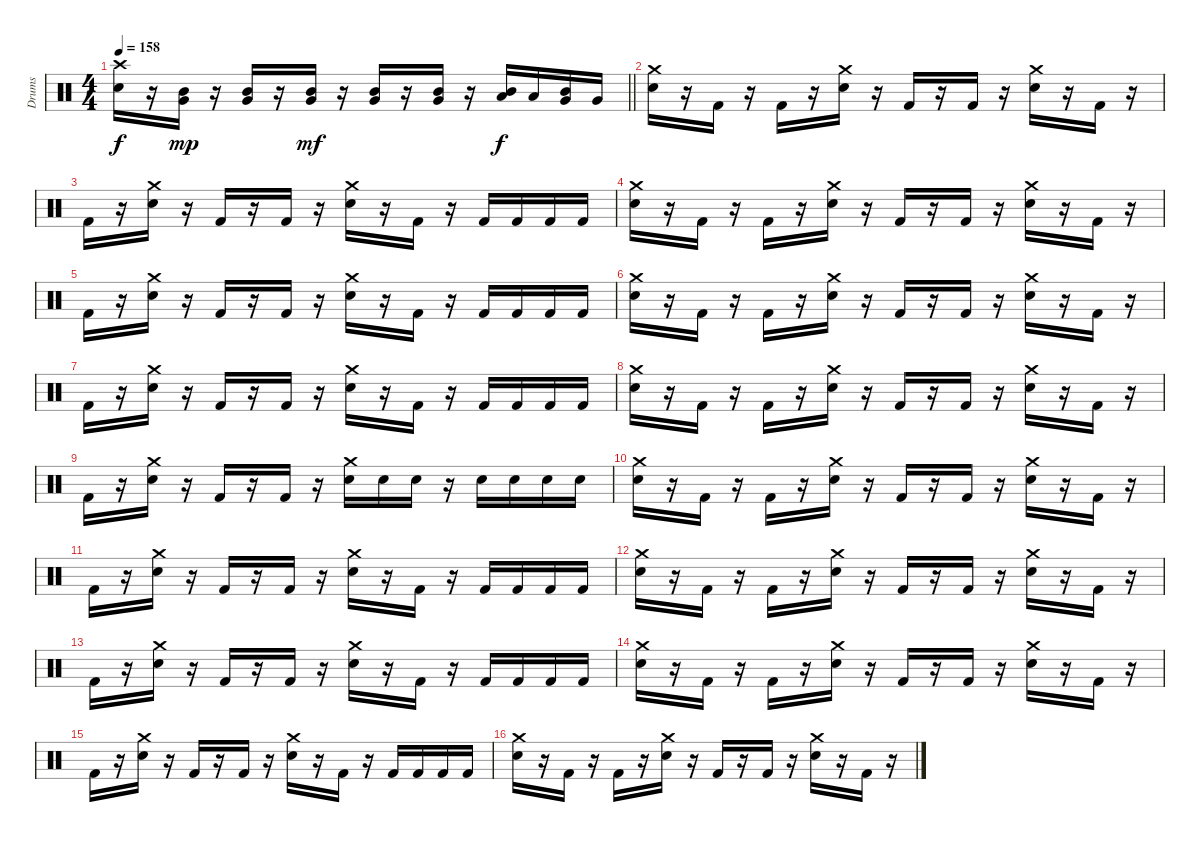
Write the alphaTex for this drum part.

\track ("Drums" "Drums") {instrument percussion}
\staff {score}
\articulation defaults
\ts (4 4)
\tempo 158
\clef neutral
\barLineRight lightlight
\ks c
("Snare (hit) 2" "Crash high (hit)").16{dy f} r.16 ("Very Low Tom (hit)" "Mid Tom (hit)").16{dy mp} r.16 ("Very Low Tom (hit)" "Mid Tom (hit)").16 r.16 ("Very Low Tom (hit)" "Mid Tom (hit)").16{dy mf} r.16 ("Very Low Tom (hit)" "Mid Tom (hit)").16 r.16 ("Very Low Tom (hit)" "Mid Tom (hit)").16 r.16 ("Low Tom (hit)" "Mid Tom (hit)").16{dy f} "Low Tom (hit)".16 ("Very Low Tom (hit)" "Mid Tom (hit)").16 "Very Low Tom (hit)".16 |
\section ("" " ")
("Snare (hit) 2" "Crash medium (hit)").16 r.16 "Kick (hit) 2".16 r.16 "Kick (hit) 2".16 r.16 ("Snare (hit) 2" "Crash medium (hit)").16 r.16 "Kick (hit) 2".16 r.16 "Kick (hit) 2".16 r.16 ("Snare (hit) 2" "Crash medium (hit)").16 r.16 "Kick (hit) 2".16 r.16 |
"Kick (hit) 2".16 r.16 ("Snare (hit) 2" "Crash medium (hit)").16 r.16 "Kick (hit) 2".16 r.16 "Kick (hit) 2".16 r.16 ("Snare (hit) 2" "Crash medium (hit)").16 r.16 "Kick (hit) 2".16 r.16 "Kick (hit) 2".16 "Kick (hit) 2".16 "Kick (hit) 2".16 "Kick (hit) 2".16 |
("Snare (hit) 2" "Crash medium (hit)").16 r.16 "Kick (hit) 2".16 r.16 "Kick (hit) 2".16 r.16 ("Snare (hit) 2" "Crash medium (hit)").16 r.16 "Kick (hit) 2".16 r.16 "Kick (hit) 2".16 r.16 ("Snare (hit) 2" "Crash medium (hit)").16 r.16 "Kick (hit) 2".16 r.16 |
"Kick (hit) 2".16 r.16 ("Snare (hit) 2" "Crash medium (hit)").16 r.16 "Kick (hit) 2".16 r.16 "Kick (hit) 2".16 r.16 ("Snare (hit) 2" "Crash medium (hit)").16 r.16 "Kick (hit) 2".16 r.16 "Kick (hit) 2".16 "Kick (hit) 2".16 "Kick (hit) 2".16 "Kick (hit) 2".16 |
("Snare (hit) 2" "Crash medium (hit)").16 r.16 "Kick (hit) 2".16 r.16 "Kick (hit) 2".16 r.16 ("Snare (hit) 2" "Crash medium (hit)").16 r.16 "Kick (hit) 2".16 r.16 "Kick (hit) 2".16 r.16 ("Snare (hit) 2" "Crash medium (hit)").16 r.16 "Kick (hit) 2".16 r.16 |
"Kick (hit) 2".16 r.16 ("Snare (hit) 2" "Crash medium (hit)").16 r.16 "Kick (hit) 2".16 r.16 "Kick (hit) 2".16 r.16 ("Snare (hit) 2" "Crash medium (hit)").16 r.16 "Kick (hit) 2".16 r.16 "Kick (hit) 2".16 "Kick (hit) 2".16 "Kick (hit) 2".16 "Kick (hit) 2".16 |
("Snare (hit) 2" "Crash medium (hit)").16 r.16 "Kick (hit) 2".16 r.16 "Kick (hit) 2".16 r.16 ("Snare (hit) 2" "Crash medium (hit)").16 r.16 "Kick (hit) 2".16 r.16 "Kick (hit) 2".16 r.16 ("Snare (hit) 2" "Crash medium (hit)").16 r.16 "Kick (hit) 2".16 r.16 |
"Kick (hit) 2".16 r.16 ("Snare (hit) 2" "Crash medium (hit)").16 r.16 "Kick (hit) 2".16 r.16 "Kick (hit) 2".16 r.16 ("Snare (hit) 2" "Crash medium (hit)").16 "Snare (hit) 2".16 "Snare (hit) 2".16 r.16 "Snare (hit) 2".16 "Snare (hit) 2".16 "Snare (hit) 2".16 "Snare (hit) 2".16 |
("Snare (hit) 2" "Crash medium (hit)").16 r.16 "Kick (hit) 2".16 r.16 "Kick (hit) 2".16 r.16 ("Snare (hit) 2" "Crash medium (hit)").16 r.16 "Kick (hit) 2".16 r.16 "Kick (hit) 2".16 r.16 ("Snare (hit) 2" "Crash medium (hit)").16 r.16 "Kick (hit) 2".16 r.16 |
"Kick (hit) 2".16 r.16 ("Snare (hit) 2" "Crash medium (hit)").16 r.16 "Kick (hit) 2".16 r.16 "Kick (hit) 2".16 r.16 ("Snare (hit) 2" "Crash medium (hit)").16 r.16 "Kick (hit) 2".16 r.16 "Kick (hit) 2".16 "Kick (hit) 2".16 "Kick (hit) 2".16 "Kick (hit) 2".16 |
("Snare (hit) 2" "Crash medium (hit)").16 r.16 "Kick (hit) 2".16 r.16 "Kick (hit) 2".16 r.16 ("Snare (hit) 2" "Crash medium (hit)").16 r.16 "Kick (hit) 2".16 r.16 "Kick (hit) 2".16 r.16 ("Snare (hit) 2" "Crash medium (hit)").16 r.16 "Kick (hit) 2".16 r.16 |
"Kick (hit) 2".16 r.16 ("Snare (hit) 2" "Crash medium (hit)").16 r.16 "Kick (hit) 2".16 r.16 "Kick (hit) 2".16 r.16 ("Snare (hit) 2" "Crash medium (hit)").16 r.16 "Kick (hit) 2".16 r.16 "Kick (hit) 2".16 "Kick (hit) 2".16 "Kick (hit) 2".16 "Kick (hit) 2".16 |
("Snare (hit) 2" "Crash medium (hit)").16 r.16 "Kick (hit) 2".16 r.16 "Kick (hit) 2".16 r.16 ("Snare (hit) 2" "Crash medium (hit)").16 r.16 "Kick (hit) 2".16 r.16 "Kick (hit) 2".16 r.16 ("Snare (hit) 2" "Crash medium (hit)").16 r.16 "Kick (hit) 2".16 r.16 |
"Kick (hit) 2".16 r.16 ("Snare (hit) 2" "Crash medium (hit)").16 r.16 "Kick (hit) 2".16 r.16 "Kick (hit) 2".16 r.16 ("Snare (hit) 2" "Crash medium (hit)").16 r.16 "Kick (hit) 2".16 r.16 "Kick (hit) 2".16 "Kick (hit) 2".16 "Kick (hit) 2".16 "Kick (hit) 2".16 |
("Snare (hit) 2" "Crash medium (hit)").16 r.16 "Kick (hit) 2".16 r.16 "Kick (hit) 2".16 r.16 ("Snare (hit) 2" "Crash medium (hit)").16 r.16 "Kick (hit) 2".16 r.16 "Kick (hit) 2".16 r.16 ("Snare (hit) 2" "Crash medium (hit)").16 r.16 "Kick (hit) 2".16 r.16
